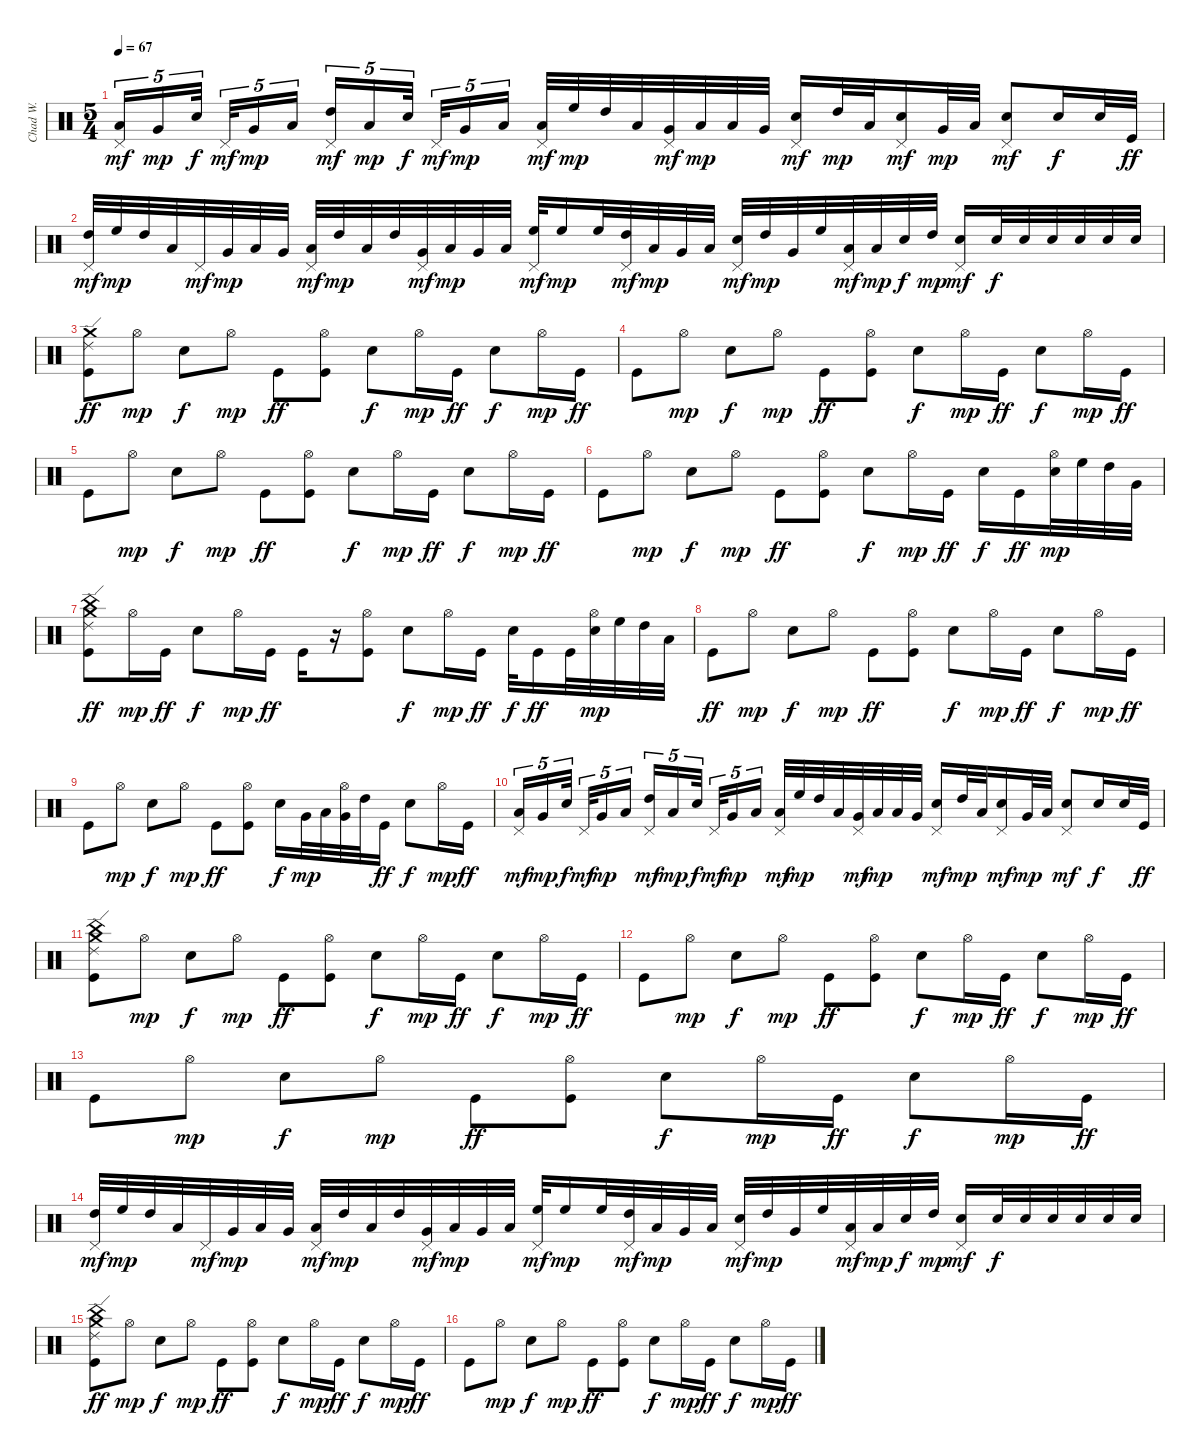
\track ("Chad W." "Chad W.") {instrument percussion}
\staff {score}
\articulation defaults
\ts (5 4)
\tempo 67
\clef neutral
\ks c
("Low Tom (hit)" "Pedal Hi-Hat (hit)").16{tu (5 4) dy mf} "Very Low Tom (hit)".16{tu (5 4) dy mp} "Snare (hit) 2".32{tu (5 4) dy f beam splitsecondary} "Pedal Hi-Hat (hit)".32{tu (5 4) dy mf} "Very Low Tom (hit)".16{tu (5 4) dy mp} "Low Floor Tom (hit)".16{tu (5 4)} ("High Tom (hit)" "Pedal Hi-Hat (hit)").16{tu (5 4) dy mf} "Low Tom (hit)".16{tu (5 4) dy mp} "Snare (hit) 2".32{tu (5 4) dy f beam splitsecondary} "Pedal Hi-Hat (hit)".32{tu (5 4) dy mf} "Very Low Tom (hit)".16{tu (5 4) dy mp} "Low Floor Tom (hit)".16{tu (5 4)} ("Low Tom (hit)" "Pedal Hi-Hat (hit)").32{dy mf} "High Floor Tom (hit)".32{dy mp} "High Tom (hit)".32 "Low Tom (hit)".32 ("Very Low Tom (hit)" "Pedal Hi-Hat (hit)").32{dy mf} "Low Floor Tom (hit)".32{dy mp} "Low Tom (hit)".32 "Very Low Tom (hit)".32 ("Snare (hit) 2" "Pedal Hi-Hat (hit)").16{dy mf} "High Tom (hit)".32{dy mp} "Low Tom (hit)".32 ("Snare (hit) 2" "Pedal Hi-Hat (hit)").16{dy mf} "Very Low Tom (hit)".32{dy mp} "Low Floor Tom (hit)".32 ("Snare (hit) 2" "Pedal Hi-Hat (hit)").8{dy mf} "Snare (hit) 2".16{dy f} "Snare (hit) 2".32 "Kick (hit)".32{dy ff} |
("High Tom (hit)" "Pedal Hi-Hat (hit)").32{dy mf} "High Floor Tom (hit)".32{dy mp} "High Tom (hit)".32 "Low Tom (hit)".32 "Pedal Hi-Hat (hit)".32{dy mf} "Very Low Tom (hit)".32{dy mp} "Low Floor Tom (hit)".32 "Very Low Tom (hit)".32 ("Low Tom (hit)" "Pedal Hi-Hat (hit)").32{dy mf} "High Tom (hit)".32{dy mp} "Low Tom (hit)".32 "High Tom (hit)".32 ("Very Low Tom (hit)" "Pedal Hi-Hat (hit)").32{dy mf} "Low Tom (hit)".32{dy mp} "Very Low Tom (hit)".32 "Low Tom (hit)".32 ("High Floor Tom (hit)" "Pedal Hi-Hat (hit)").32{dy mf} "High Floor Tom (hit)".16{dy mp} "High Floor Tom (hit)".32 ("High Tom (hit)" "Pedal Hi-Hat (hit)").32{dy mf} "Low Tom (hit)".32{dy mp} "Very Low Tom (hit)".32 "Low Floor Tom (hit)".32 ("Snare (hit) 2" "Pedal Hi-Hat (hit)").32{dy mf} "High Tom (hit)".32{dy mp} "Very Low Tom (hit)".32 "High Floor Tom (hit)".32 ("Low Floor Tom (hit)" "Pedal Hi-Hat (hit)").32{dy mf} "Low Tom (hit)".32{dy mp} "Snare (hit) 2".32{dy f} "High Tom (hit)".32{dy mp} ("Snare (hit) 2" "Pedal Hi-Hat (hit)").16{dy mf} "Snare (hit) 2".32{dy f} "Snare (hit) 2".32 "Snare (hit) 2".32 "Snare (hit) 2".32 "Snare (hit) 2".32 "Snare (hit) 2".32 |
("Crash medium (hit)" "Ride (edge) 2" "Kick (hit)").8{dy ff} "Hi-Hat (open)".8{dy mp} "Snare (hit) 2".8{dy f} "Hi-Hat (open)".8{dy mp} "Kick (hit)".8{dy ff} ("Hi-Hat (open)" "Kick (hit)").8 "Snare (hit) 2".8{dy f} "Hi-Hat (open)".16{dy mp} "Kick (hit)".16{dy ff} "Snare (hit) 2".8{dy f} "Hi-Hat (open)".16{dy mp} "Kick (hit)".16{dy ff} |
"Kick (hit)".8 "Hi-Hat (open)".8{dy mp} "Snare (hit) 2".8{dy f} "Hi-Hat (open)".8{dy mp} "Kick (hit)".8{dy ff} ("Hi-Hat (open)" "Kick (hit)").8 "Snare (hit) 2".8{dy f} "Hi-Hat (open)".16{dy mp} "Kick (hit)".16{dy ff} "Snare (hit) 2".8{dy f} "Hi-Hat (open)".16{dy mp} "Kick (hit)".16{dy ff} |
"Kick (hit)".8 "Hi-Hat (open)".8{dy mp} "Snare (hit) 2".8{dy f} "Hi-Hat (open)".8{dy mp} "Kick (hit)".8{dy ff} ("Hi-Hat (open)" "Kick (hit)").8 "Snare (hit) 2".8{dy f} "Hi-Hat (open)".16{dy mp} "Kick (hit)".16{dy ff} "Snare (hit) 2".8{dy f} "Hi-Hat (open)".16{dy mp} "Kick (hit)".16{dy ff} |
"Kick (hit)".8 "Hi-Hat (open)".8{dy mp} "Snare (hit) 2".8{dy f} "Hi-Hat (open)".8{dy mp} "Kick (hit)".8{dy ff} ("Hi-Hat (open)" "Kick (hit)").8 "Snare (hit) 2".8{dy f} "Hi-Hat (open)".16{dy mp} "Kick (hit)".16{dy ff} "Snare (hit) 2".16{dy f} "Kick (hit)".16{dy ff} ("Hi-Hat (open)" "Snare (hit) 2").32{dy mp} "High Floor Tom (hit)".32 "High Tom (hit)".32 "Very Low Tom (hit)".32 |
("Crash medium (hit)" "China (hit)" "Ride (edge) 2" "Kick (hit)").8{dy ff} "Hi-Hat (open)".16{dy mp} "Kick (hit)".16{dy ff} "Snare (hit) 2".8{dy f} "Hi-Hat (open)".16{dy mp} "Kick (hit)".16{dy ff} "Kick (hit)".16 r.16 ("Hi-Hat (open)" "Kick (hit)").8 "Snare (hit) 2".8{dy f} "Hi-Hat (open)".16{dy mp} "Kick (hit)".16{dy ff} "Snare (hit) 2".32{dy f} "Kick (hit)".16{dy ff} "Kick (hit)".32 ("Hi-Hat (open)" "Snare (hit) 2").32{dy mp} "High Floor Tom (hit)".32 "High Tom (hit)".32 "Low Tom (hit)".32 |
"Kick (hit)".8{dy ff} "Hi-Hat (open)".8{dy mp} "Snare (hit) 2".8{dy f} "Hi-Hat (open)".8{dy mp} "Kick (hit)".8{dy ff} ("Hi-Hat (open)" "Kick (hit)").8 "Snare (hit) 2".8{dy f} "Hi-Hat (open)".16{dy mp} "Kick (hit)".16{dy ff} "Snare (hit) 2".8{dy f} "Hi-Hat (open)".16{dy mp} "Kick (hit)".16{dy ff} |
"Kick (hit)".8 "Hi-Hat (open)".8{dy mp} "Snare (hit) 2".8{dy f} "Hi-Hat (open)".8{dy mp} "Kick (hit)".8{dy ff} ("Hi-Hat (open)" "Kick (hit)").8 "Snare (hit) 2".16{dy f} "Very Low Tom (hit)".32{dy mp} "Low Floor Tom (hit)".32 ("Hi-Hat (open)" "Very Low Tom (hit)").32 "High Tom (hit)".32 "Kick (hit)".16{dy ff} "Snare (hit) 2".8{dy f} "Hi-Hat (open)".16{dy mp} "Kick (hit)".16{dy ff} |
("Low Tom (hit)" "Pedal Hi-Hat (hit)").16{tu (5 4) dy mf} "Very Low Tom (hit)".16{tu (5 4) dy mp} "Snare (hit) 2".32{tu (5 4) dy f beam splitsecondary} "Pedal Hi-Hat (hit)".32{tu (5 4) dy mf} "Very Low Tom (hit)".16{tu (5 4) dy mp} "Low Floor Tom (hit)".16{tu (5 4)} ("High Tom (hit)" "Pedal Hi-Hat (hit)").16{tu (5 4) dy mf} "Low Tom (hit)".16{tu (5 4) dy mp} "Snare (hit) 2".32{tu (5 4) dy f beam splitsecondary} "Pedal Hi-Hat (hit)".32{tu (5 4) dy mf} "Very Low Tom (hit)".16{tu (5 4) dy mp} "Low Floor Tom (hit)".16{tu (5 4)} ("Low Tom (hit)" "Pedal Hi-Hat (hit)").32{dy mf} "High Floor Tom (hit)".32{dy mp} "High Tom (hit)".32 "Low Tom (hit)".32 ("Very Low Tom (hit)" "Pedal Hi-Hat (hit)").32{dy mf} "Low Floor Tom (hit)".32{dy mp} "Low Tom (hit)".32 "Very Low Tom (hit)".32 ("Snare (hit) 2" "Pedal Hi-Hat (hit)").16{dy mf} "High Tom (hit)".32{dy mp} "Low Tom (hit)".32 ("Snare (hit) 2" "Pedal Hi-Hat (hit)").16{dy mf} "Very Low Tom (hit)".32{dy mp} "Low Floor Tom (hit)".32 ("Snare (hit) 2" "Pedal Hi-Hat (hit)").8{dy mf} "Snare (hit) 2".16{dy f} "Snare (hit) 2".32 "Kick (hit)".32{dy ff} |
("Crash medium (hit)" "China (hit)" "Ride (edge) 2" "Kick (hit)").8 "Hi-Hat (open)".8{dy mp} "Snare (hit) 2".8{dy f} "Hi-Hat (open)".8{dy mp} "Kick (hit)".8{dy ff} ("Hi-Hat (open)" "Kick (hit)").8 "Snare (hit) 2".8{dy f} "Hi-Hat (open)".16{dy mp} "Kick (hit)".16{dy ff} "Snare (hit) 2".8{dy f} "Hi-Hat (open)".16{dy mp} "Kick (hit)".16{dy ff} |
"Kick (hit)".8 "Hi-Hat (open)".8{dy mp} "Snare (hit) 2".8{dy f} "Hi-Hat (open)".8{dy mp} "Kick (hit)".8{dy ff} ("Hi-Hat (open)" "Kick (hit)").8 "Snare (hit) 2".8{dy f} "Hi-Hat (open)".16{dy mp} "Kick (hit)".16{dy ff} "Snare (hit) 2".8{dy f} "Hi-Hat (open)".16{dy mp} "Kick (hit)".16{dy ff} |
"Kick (hit)".8 "Hi-Hat (open)".8{dy mp} "Snare (hit) 2".8{dy f} "Hi-Hat (open)".8{dy mp} "Kick (hit)".8{dy ff} ("Hi-Hat (open)" "Kick (hit)").8 "Snare (hit) 2".8{dy f} "Hi-Hat (open)".16{dy mp} "Kick (hit)".16{dy ff} "Snare (hit) 2".8{dy f} "Hi-Hat (open)".16{dy mp} "Kick (hit)".16{dy ff} |
("High Tom (hit)" "Pedal Hi-Hat (hit)").32{dy mf} "High Floor Tom (hit)".32{dy mp} "High Tom (hit)".32 "Low Tom (hit)".32 "Pedal Hi-Hat (hit)".32{dy mf} "Very Low Tom (hit)".32{dy mp} "Low Floor Tom (hit)".32 "Very Low Tom (hit)".32 ("Low Tom (hit)" "Pedal Hi-Hat (hit)").32{dy mf} "High Tom (hit)".32{dy mp} "Low Tom (hit)".32 "High Tom (hit)".32 ("Very Low Tom (hit)" "Pedal Hi-Hat (hit)").32{dy mf} "Low Tom (hit)".32{dy mp} "Very Low Tom (hit)".32 "Low Tom (hit)".32 ("High Floor Tom (hit)" "Pedal Hi-Hat (hit)").32{dy mf} "High Floor Tom (hit)".16{dy mp} "High Floor Tom (hit)".32 ("High Tom (hit)" "Pedal Hi-Hat (hit)").32{dy mf} "Low Tom (hit)".32{dy mp} "Very Low Tom (hit)".32 "Low Floor Tom (hit)".32 ("Snare (hit) 2" "Pedal Hi-Hat (hit)").32{dy mf} "High Tom (hit)".32{dy mp} "Very Low Tom (hit)".32 "High Floor Tom (hit)".32 ("Low Floor Tom (hit)" "Pedal Hi-Hat (hit)").32{dy mf} "Low Tom (hit)".32{dy mp} "Snare (hit) 2".32{dy f} "High Tom (hit)".32{dy mp} ("Snare (hit) 2" "Pedal Hi-Hat (hit)").16{dy mf} "Snare (hit) 2".32{dy f} "Snare (hit) 2".32 "Snare (hit) 2".32 "Snare (hit) 2".32 "Snare (hit) 2".32 "Snare (hit) 2".32 |
("Crash medium (hit)" "China (hit)" "Ride (edge) 2" "Kick (hit)").8{dy ff} "Hi-Hat (open)".8{dy mp} "Snare (hit) 2".8{dy f} "Hi-Hat (open)".8{dy mp} "Kick (hit)".8{dy ff} ("Hi-Hat (open)" "Kick (hit)").8 "Snare (hit) 2".8{dy f} "Hi-Hat (open)".16{dy mp} "Kick (hit)".16{dy ff} "Snare (hit) 2".8{dy f} "Hi-Hat (open)".16{dy mp} "Kick (hit)".16{dy ff} |
"Kick (hit)".8 "Hi-Hat (open)".8{dy mp} "Snare (hit) 2".8{dy f} "Hi-Hat (open)".8{dy mp} "Kick (hit)".8{dy ff} ("Hi-Hat (open)" "Kick (hit)").8 "Snare (hit) 2".8{dy f} "Hi-Hat (open)".16{dy mp} "Kick (hit)".16{dy ff} "Snare (hit) 2".8{dy f} "Hi-Hat (open)".16{dy mp} "Kick (hit)".16{dy ff}
